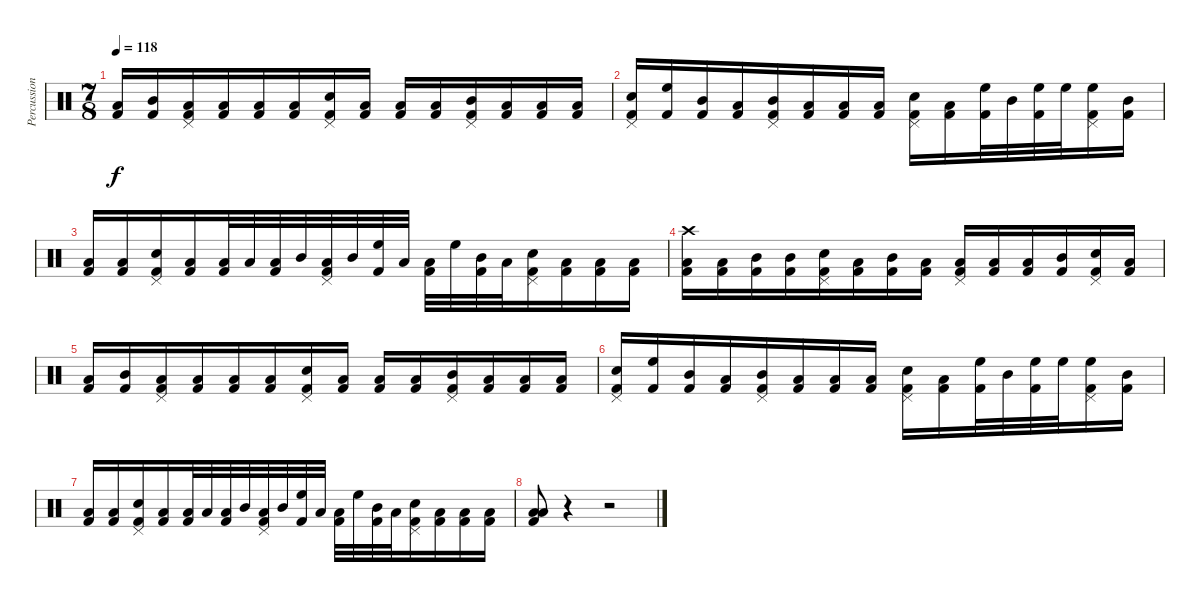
\track ("Percussion" "Percussion") {instrument percussion}
\staff {score}
\articulation defaults
\ts (7 8)
\tempo 118
\clef neutral
\ks c
("Low Tom (hit)" "Kick (hit) 2").16{dy f} ("Mid Tom (hit)" "Kick (hit) 2").16 ("Pedal Hi-Hat (hit)" "Low Tom (hit)" "Kick (hit) 2").16 ("Low Floor Tom (hit)" "Kick (hit) 2").16 ("Low Tom (hit)" "Kick (hit) 2").16 ("Low Floor Tom (hit)" "Kick (hit) 2").16 ("Pedal Hi-Hat (hit)" "Electric Snare (hit)" "Kick (hit) 2").16 ("Low Tom (hit)" "Kick (hit) 2").16 ("Low Floor Tom (hit)" "Kick (hit) 2").16 ("Low Tom (hit)" "Kick (hit) 2").16 ("Pedal Hi-Hat (hit)" "Mid Tom (hit)" "Kick (hit) 2").16 ("Low Tom (hit)" "Kick (hit) 2").16 ("Low Floor Tom (hit)" "Kick (hit) 2").16 ("Low Tom (hit)" "Kick (hit) 2").16 |
("Pedal Hi-Hat (hit)" "Electric Snare (hit)" "Kick (hit) 2").16 ("High Floor Tom (hit)" "Kick (hit) 2").16 ("Mid Tom (hit)" "Kick (hit) 2").16 ("Low Tom (hit)" "Kick (hit) 2").16 ("Pedal Hi-Hat (hit)" "Mid Tom (hit)" "Kick (hit) 2").16 ("Low Tom (hit)" "Kick (hit) 2").16 ("Low Floor Tom (hit)" "Kick (hit) 2").16 ("Low Tom (hit)" "Kick (hit) 2").16 ("Pedal Hi-Hat (hit)" "Electric Snare (hit)" "Kick (hit) 2").16 ("Low Floor Tom (hit)" "Kick (hit) 2").16 ("High Floor Tom (hit)" "Kick (hit) 2").32 "Mid Tom (hit)".32 ("High Floor Tom (hit)" "Kick (hit) 2").32 "High Floor Tom (hit)".32 ("Pedal Hi-Hat (hit)" "High Floor Tom (hit)" "Kick (hit) 2").16 ("Mid Tom (hit)" "Kick (hit) 2").16 |
("Low Tom (hit)" "Kick (hit) 2").16 ("Low Tom (hit)" "Kick (hit) 2").16 ("Pedal Hi-Hat (hit)" "Electric Snare (hit)" "Kick (hit) 2").16 ("Low Tom (hit)" "Kick (hit) 2").16 ("Low Tom (hit)" "Kick (hit) 2").32 "Low Floor Tom (hit)".32 ("Low Tom (hit)" "Kick (hit) 2").32 "Mid Tom (hit)".32 ("Pedal Hi-Hat (hit)" "Low Tom (hit)" "Kick (hit) 2").32 "Mid Tom (hit)".32 ("High Floor Tom (hit)" "Kick (hit) 2").32 "Low Tom (hit)".32 ("Low Floor Tom (hit)" "Kick (hit) 2").32 "High Floor Tom (hit)".32 ("Mid Tom (hit)" "Kick (hit) 2").32 "Low Tom (hit)".32 ("Pedal Hi-Hat (hit)" "Electric Snare (hit)" "Kick (hit) 2").16 ("Low Tom (hit)" "Kick (hit) 2").16 ("Low Floor Tom (hit)" "Kick (hit) 2").16 ("Low Tom (hit)" "Kick (hit) 2").16 |
("Crash high (hit)" "Low Floor Tom (hit)" "Kick (hit) 2").16 ("Low Tom (hit)" "Kick (hit) 2").16 ("Mid Tom (hit)" "Kick (hit) 2").16 ("Mid Tom (hit)" "Kick (hit) 2").16 ("Pedal Hi-Hat (hit)" "Electric Snare (hit)" "Kick (hit) 2").16 ("Low Tom (hit)" "Kick (hit) 2").16 ("Mid Tom (hit)" "Kick (hit) 2").16 ("Low Tom (hit)" "Kick (hit) 2").16 ("Pedal Hi-Hat (hit)" "Low Floor Tom (hit)" "Kick (hit) 2").16 ("Low Tom (hit)" "Kick (hit) 2").16 ("Low Floor Tom (hit)" "Kick (hit) 2").16 ("Mid Tom (hit)" "Kick (hit) 2").16 ("Pedal Hi-Hat (hit)" "Electric Snare (hit)" "Kick (hit) 2").16 ("Low Tom (hit)" "Kick (hit) 2").16 |
("Low Tom (hit)" "Kick (hit) 2").16 ("Mid Tom (hit)" "Kick (hit) 2").16 ("Pedal Hi-Hat (hit)" "Low Tom (hit)" "Kick (hit) 2").16 ("Low Floor Tom (hit)" "Kick (hit) 2").16 ("Low Tom (hit)" "Kick (hit) 2").16 ("Low Floor Tom (hit)" "Kick (hit) 2").16 ("Pedal Hi-Hat (hit)" "Electric Snare (hit)" "Kick (hit) 2").16 ("Low Tom (hit)" "Kick (hit) 2").16 ("Low Floor Tom (hit)" "Kick (hit) 2").16 ("Low Tom (hit)" "Kick (hit) 2").16 ("Pedal Hi-Hat (hit)" "Mid Tom (hit)" "Kick (hit) 2").16 ("Low Tom (hit)" "Kick (hit) 2").16 ("Low Floor Tom (hit)" "Kick (hit) 2").16 ("Low Tom (hit)" "Kick (hit) 2").16 |
("Pedal Hi-Hat (hit)" "Electric Snare (hit)" "Kick (hit) 2").16 ("High Floor Tom (hit)" "Kick (hit) 2").16 ("Mid Tom (hit)" "Kick (hit) 2").16 ("Low Tom (hit)" "Kick (hit) 2").16 ("Pedal Hi-Hat (hit)" "Mid Tom (hit)" "Kick (hit) 2").16 ("Low Tom (hit)" "Kick (hit) 2").16 ("Low Floor Tom (hit)" "Kick (hit) 2").16 ("Low Tom (hit)" "Kick (hit) 2").16 ("Pedal Hi-Hat (hit)" "Electric Snare (hit)" "Kick (hit) 2").16 ("Low Floor Tom (hit)" "Kick (hit) 2").16 ("High Floor Tom (hit)" "Kick (hit) 2").32 "Mid Tom (hit)".32 ("High Floor Tom (hit)" "Kick (hit) 2").32 "High Floor Tom (hit)".32 ("Pedal Hi-Hat (hit)" "High Floor Tom (hit)" "Kick (hit) 2").16 ("Mid Tom (hit)" "Kick (hit) 2").16 |
("Low Tom (hit)" "Kick (hit) 2").16 ("Low Tom (hit)" "Kick (hit) 2").16 ("Pedal Hi-Hat (hit)" "Electric Snare (hit)" "Kick (hit) 2").16 ("Low Tom (hit)" "Kick (hit) 2").16 ("Low Tom (hit)" "Kick (hit) 2").32 "Low Floor Tom (hit)".32 ("Low Tom (hit)" "Kick (hit) 2").32 "Mid Tom (hit)".32 ("Pedal Hi-Hat (hit)" "Low Tom (hit)" "Kick (hit) 2").32 "Mid Tom (hit)".32 ("High Floor Tom (hit)" "Kick (hit) 2").32 "Low Tom (hit)".32 ("Low Floor Tom (hit)" "Kick (hit) 2").32 "High Floor Tom (hit)".32 ("Mid Tom (hit)" "Kick (hit) 2").32 "Low Tom (hit)".32 ("Pedal Hi-Hat (hit)" "Electric Snare (hit)" "Kick (hit) 2").16 ("Low Tom (hit)" "Kick (hit) 2").16 ("Low Floor Tom (hit)" "Kick (hit) 2").16 ("Low Tom (hit)" "Kick (hit) 2").16 |
("Low Tom (hit)" "Low Floor Tom (hit)" "Kick (hit) 2").8 r.4 r.2
